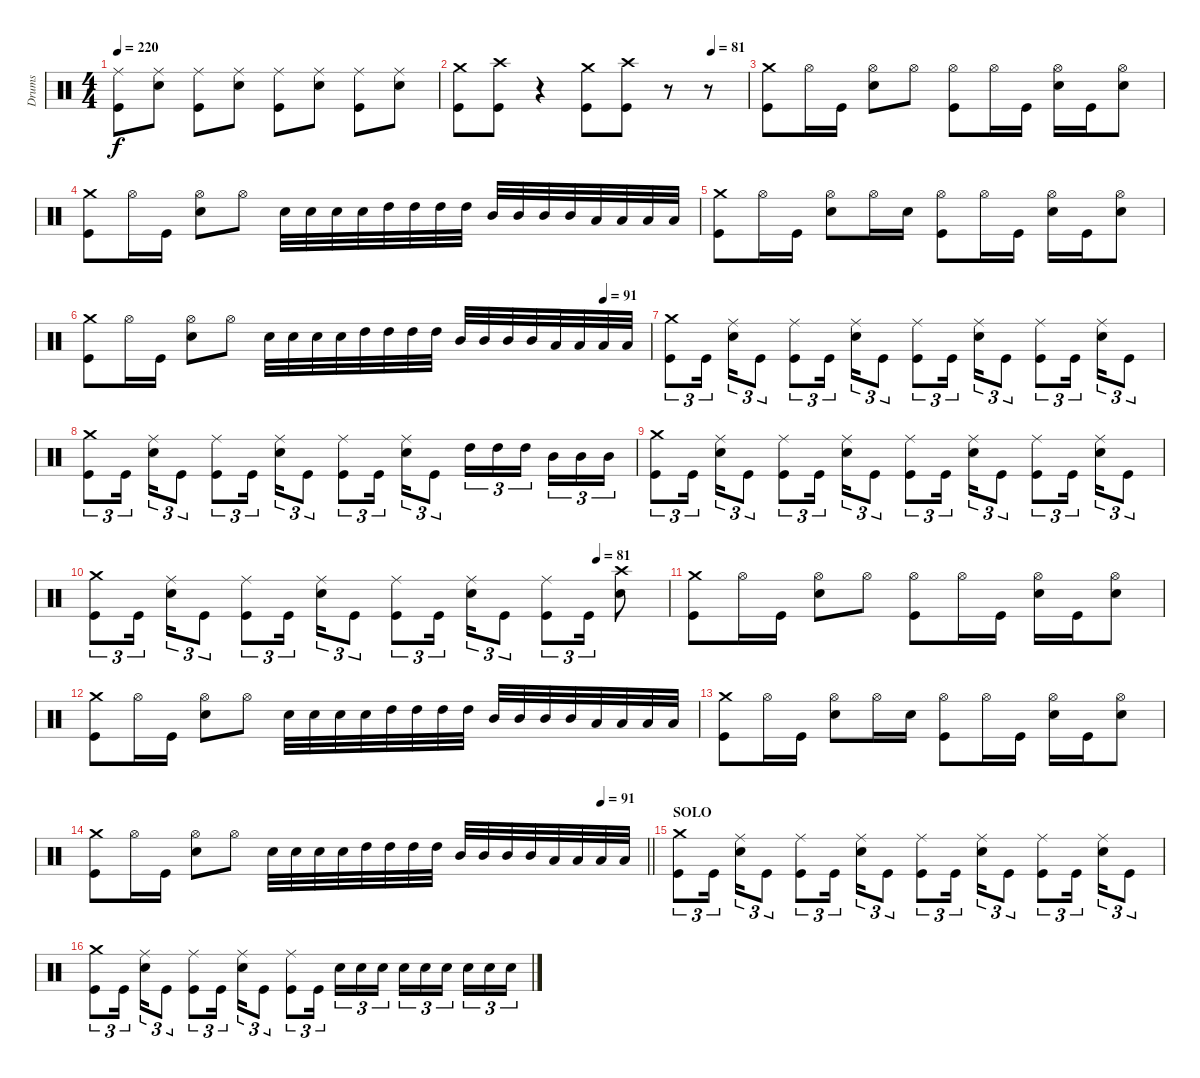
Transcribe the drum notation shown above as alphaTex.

\track ("Drums" "Drums") {instrument percussion}
\staff {score}
\articulation defaults
\ts (4 4)
\tempo 220
\clef neutral
\ks c
("Ride (middle)" "Kick (hit)").8{dy f} ("Ride (middle)" "Snare (hit) 2").8 ("Ride (middle)" "Kick (hit)").8 ("Ride (middle)" "Snare (hit) 2").8 ("Ride (middle)" "Kick (hit)").8 ("Ride (middle)" "Snare (hit) 2").8 ("Ride (middle)" "Kick (hit)").8 ("Ride (middle)" "Snare (hit) 2").8 |
\tempo (81 0.875)
("Crash medium (hit)" "Kick (hit)").8 ("Crash high (hit)" "Kick (hit)").8 r.4 ("Crash medium (hit)" "Kick (hit)").8 ("Crash high (hit)" "Kick (hit)").8 r.8 r.8 |
("Crash medium (hit)" "Kick (hit)").8 "Hi-Hat (open)".16 "Kick (hit)".16 ("Hi-Hat (open)" "Snare (hit) 2").8 "Hi-Hat (open)".8 ("Hi-Hat (open)" "Kick (hit)").8 "Hi-Hat (open)".16 "Kick (hit)".16 ("Hi-Hat (open)" "Snare (hit) 2").16 "Kick (hit)".16 ("Hi-Hat (open)" "Snare (hit) 2").8 |
("Crash medium (hit)" "Kick (hit)").8 "Hi-Hat (open)".16 "Kick (hit)".16 ("Hi-Hat (open)" "Snare (hit) 2").8 "Hi-Hat (open)".8 "Snare (hit) 2".32 "Snare (hit) 2".32 "Snare (hit) 2".32 "Snare (hit) 2".32 "High Tom (hit)".32 "High Tom (hit)".32 "High Tom (hit)".32 "High Tom (hit)".32 "Mid Tom (hit)".32 "Mid Tom (hit)".32 "Mid Tom (hit)".32 "Mid Tom (hit)".32 "Low Tom (hit)".32 "Low Tom (hit)".32 "Low Tom (hit)".32 "Low Tom (hit)".32 |
("Crash medium (hit)" "Kick (hit)").8 "Hi-Hat (open)".16 "Kick (hit)".16 ("Hi-Hat (open)" "Snare (hit) 2").8 "Hi-Hat (open)".16 "Snare (hit) 2".16 ("Hi-Hat (open)" "Kick (hit)").8 "Hi-Hat (open)".16 "Kick (hit)".16 ("Hi-Hat (open)" "Snare (hit) 2").16 "Kick (hit)".16 ("Hi-Hat (open)" "Snare (hit) 2").8 |
\tempo (91 0.9166666666666666)
("Crash medium (hit)" "Kick (hit)").8 "Hi-Hat (open)".16 "Kick (hit)".16 ("Hi-Hat (open)" "Snare (hit) 2").8 "Hi-Hat (open)".8 "Snare (hit) 2".32 "Snare (hit) 2".32 "Snare (hit) 2".32 "Snare (hit) 2".32 "High Tom (hit)".32 "High Tom (hit)".32 "High Tom (hit)".32 "High Tom (hit)".32 "Mid Tom (hit)".32 "Mid Tom (hit)".32 "Mid Tom (hit)".32 "Mid Tom (hit)".32 "Low Tom (hit)".32 "Low Tom (hit)".32 "Low Tom (hit)".32 "Low Tom (hit)".32 |
("Crash medium (hit)" "Kick (hit)").8{tu (3 2)} "Kick (hit)".16{tu (3 2) beam splitsecondary} ("Ride (middle)" "Snare (hit) 2").16{tu (3 2)} "Kick (hit)".8{tu (3 2)} ("Ride (middle)" "Kick (hit)").8{tu (3 2)} "Kick (hit)".16{tu (3 2) beam splitsecondary} ("Ride (middle)" "Snare (hit) 2").16{tu (3 2)} "Kick (hit)".8{tu (3 2)} ("Ride (middle)" "Kick (hit)").8{tu (3 2)} "Kick (hit)".16{tu (3 2) beam splitsecondary} ("Ride (middle)" "Snare (hit) 2").16{tu (3 2)} "Kick (hit)".8{tu (3 2)} ("Ride (middle)" "Kick (hit)").8{tu (3 2)} "Kick (hit)".16{tu (3 2) beam splitsecondary} ("Ride (middle)" "Snare (hit) 2").16{tu (3 2)} "Kick (hit)".8{tu (3 2)} |
("Crash medium (hit)" "Kick (hit)").8{tu (3 2)} "Kick (hit)".16{tu (3 2) beam splitsecondary} ("Ride (middle)" "Snare (hit) 2").16{tu (3 2)} "Kick (hit)".8{tu (3 2)} ("Ride (middle)" "Kick (hit)").8{tu (3 2)} "Kick (hit)".16{tu (3 2) beam splitsecondary} ("Ride (middle)" "Snare (hit) 2").16{tu (3 2)} "Kick (hit)".8{tu (3 2)} ("Ride (middle)" "Kick (hit)").8{tu (3 2)} "Kick (hit)".16{tu (3 2) beam splitsecondary} ("Ride (middle)" "Snare (hit) 2").16{tu (3 2)} "Kick (hit)".8{tu (3 2)} "High Tom (hit)".16{tu (3 2)} "High Tom (hit)".16{tu (3 2)} "High Tom (hit)".16{tu (3 2) beam splitsecondary} "Mid Tom (hit)".16{tu (3 2)} "Mid Tom (hit)".16{tu (3 2)} "Mid Tom (hit)".16{tu (3 2)} |
("Crash medium (hit)" "Kick (hit)").8{tu (3 2)} "Kick (hit)".16{tu (3 2) beam splitsecondary} ("Ride (middle)" "Snare (hit) 2").16{tu (3 2)} "Kick (hit)".8{tu (3 2)} ("Ride (middle)" "Kick (hit)").8{tu (3 2)} "Kick (hit)".16{tu (3 2) beam splitsecondary} ("Ride (middle)" "Snare (hit) 2").16{tu (3 2)} "Kick (hit)".8{tu (3 2)} ("Ride (middle)" "Kick (hit)").8{tu (3 2)} "Kick (hit)".16{tu (3 2) beam splitsecondary} ("Ride (middle)" "Snare (hit) 2").16{tu (3 2)} "Kick (hit)".8{tu (3 2)} ("Ride (middle)" "Kick (hit)").8{tu (3 2)} "Kick (hit)".16{tu (3 2) beam splitsecondary} ("Ride (middle)" "Snare (hit) 2").16{tu (3 2)} "Kick (hit)".8{tu (3 2)} |
\tempo (81 0.875)
("Crash medium (hit)" "Kick (hit)").8{tu (3 2)} "Kick (hit)".16{tu (3 2) beam splitsecondary} ("Ride (middle)" "Snare (hit) 2").16{tu (3 2)} "Kick (hit)".8{tu (3 2)} ("Ride (middle)" "Kick (hit)").8{tu (3 2)} "Kick (hit)".16{tu (3 2) beam splitsecondary} ("Ride (middle)" "Snare (hit) 2").16{tu (3 2)} "Kick (hit)".8{tu (3 2)} ("Ride (middle)" "Kick (hit)").8{tu (3 2)} "Kick (hit)".16{tu (3 2) beam splitsecondary} ("Ride (middle)" "Snare (hit) 2").16{tu (3 2)} "Kick (hit)".8{tu (3 2)} ("Ride (middle)" "Kick (hit)").8{tu (3 2)} "Kick (hit)".16{tu (3 2)} ("Crash high (hit)" "Snare (hit) 2").8 |
("Crash medium (hit)" "Kick (hit)").8 "Hi-Hat (open)".16 "Kick (hit)".16 ("Hi-Hat (open)" "Snare (hit) 2").8 "Hi-Hat (open)".8 ("Hi-Hat (open)" "Kick (hit)").8 "Hi-Hat (open)".16 "Kick (hit)".16 ("Hi-Hat (open)" "Snare (hit) 2").16 "Kick (hit)".16 ("Hi-Hat (open)" "Snare (hit) 2").8 |
("Crash medium (hit)" "Kick (hit)").8 "Hi-Hat (open)".16 "Kick (hit)".16 ("Hi-Hat (open)" "Snare (hit) 2").8 "Hi-Hat (open)".8 "Snare (hit) 2".32 "Snare (hit) 2".32 "Snare (hit) 2".32 "Snare (hit) 2".32 "High Tom (hit)".32 "High Tom (hit)".32 "High Tom (hit)".32 "High Tom (hit)".32 "Mid Tom (hit)".32 "Mid Tom (hit)".32 "Mid Tom (hit)".32 "Mid Tom (hit)".32 "Low Tom (hit)".32 "Low Tom (hit)".32 "Low Tom (hit)".32 "Low Tom (hit)".32 |
("Crash medium (hit)" "Kick (hit)").8 "Hi-Hat (open)".16 "Kick (hit)".16 ("Hi-Hat (open)" "Snare (hit) 2").8 "Hi-Hat (open)".16 "Snare (hit) 2".16 ("Hi-Hat (open)" "Kick (hit)").8 "Hi-Hat (open)".16 "Kick (hit)".16 ("Hi-Hat (open)" "Snare (hit) 2").16 "Kick (hit)".16 ("Hi-Hat (open)" "Snare (hit) 2").8 |
\tempo (91 0.9166666666666666)
\barLineRight lightlight
("Crash medium (hit)" "Kick (hit)").8 "Hi-Hat (open)".16 "Kick (hit)".16 ("Hi-Hat (open)" "Snare (hit) 2").8 "Hi-Hat (open)".8 "Snare (hit) 2".32 "Snare (hit) 2".32 "Snare (hit) 2".32 "Snare (hit) 2".32 "High Tom (hit)".32 "High Tom (hit)".32 "High Tom (hit)".32 "High Tom (hit)".32 "Mid Tom (hit)".32 "Mid Tom (hit)".32 "Mid Tom (hit)".32 "Mid Tom (hit)".32 "Low Tom (hit)".32 "Low Tom (hit)".32 "Low Tom (hit)".32 "Low Tom (hit)".32 |
\section ("" "SOLO")
("Crash medium (hit)" "Kick (hit)").8{tu (3 2)} "Kick (hit)".16{tu (3 2) beam splitsecondary} ("Ride (middle)" "Snare (hit) 2").16{tu (3 2)} "Kick (hit)".8{tu (3 2)} ("Ride (middle)" "Kick (hit)").8{tu (3 2)} "Kick (hit)".16{tu (3 2) beam splitsecondary} ("Ride (middle)" "Snare (hit) 2").16{tu (3 2)} "Kick (hit)".8{tu (3 2)} ("Ride (middle)" "Kick (hit)").8{tu (3 2)} "Kick (hit)".16{tu (3 2) beam splitsecondary} ("Ride (middle)" "Snare (hit) 2").16{tu (3 2)} "Kick (hit)".8{tu (3 2)} ("Ride (middle)" "Kick (hit)").8{tu (3 2)} "Kick (hit)".16{tu (3 2) beam splitsecondary} ("Ride (middle)" "Snare (hit) 2").16{tu (3 2)} "Kick (hit)".8{tu (3 2)} |
("Crash medium (hit)" "Kick (hit)").8{tu (3 2)} "Kick (hit)".16{tu (3 2) beam splitsecondary} ("Ride (middle)" "Snare (hit) 2").16{tu (3 2)} "Kick (hit)".8{tu (3 2)} ("Ride (middle)" "Kick (hit)").8{tu (3 2)} "Kick (hit)".16{tu (3 2) beam splitsecondary} ("Ride (middle)" "Snare (hit) 2").16{tu (3 2)} "Kick (hit)".8{tu (3 2)} ("Ride (middle)" "Kick (hit)").8{tu (3 2)} "Kick (hit)".16{tu (3 2) beam splitsecondary} "Snare (hit) 2".16{tu (3 2)} "Snare (hit) 2".16{tu (3 2)} "Snare (hit) 2".16{tu (3 2)} "Snare (hit) 2".16{tu (3 2)} "Snare (hit) 2".16{tu (3 2)} "Snare (hit) 2".16{tu (3 2) beam splitsecondary} "Snare (hit) 2".16{tu (3 2)} "Snare (hit) 2".16{tu (3 2)} "Snare (hit) 2".16{tu (3 2)}
